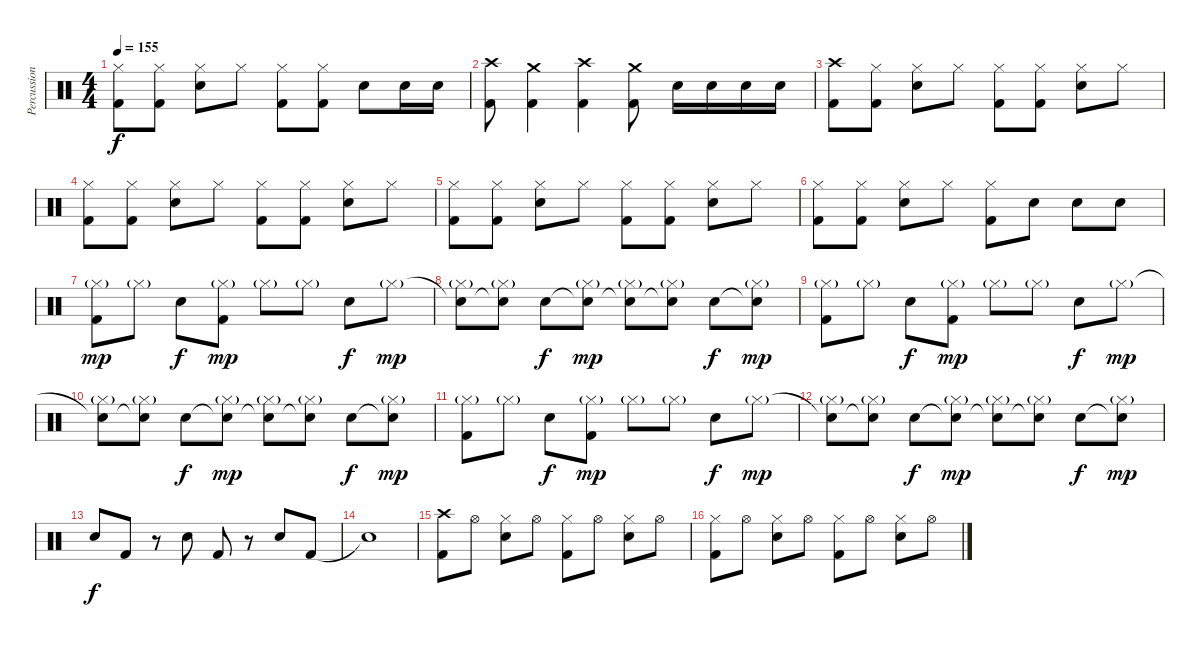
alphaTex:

\track ("Percussion" "Percussion") {instrument percussion}
\staff {score}
\articulation defaults
\ts (4 4)
\tempo 155
\clef neutral
\ks c
("Hi-Hat (closed)" "Kick (hit) 2").8{dy f} ("Hi-Hat (closed)" "Kick (hit) 2").8 ("Hi-Hat (closed)" "Electric Snare (hit)").8 "Hi-Hat (closed)".8 ("Hi-Hat (closed)" "Kick (hit) 2").8 ("Hi-Hat (closed)" "Kick (hit) 2").8 "Electric Snare (hit)".8 "Electric Snare (hit)".16 "Electric Snare (hit)".16 |
("Crash high (hit)" "Kick (hit) 2").8 ("Crash medium (hit)" "Kick (hit) 2").4 ("Crash high (hit)" "Kick (hit) 2").4 ("Crash medium (hit)" "Kick (hit) 2").8 "Electric Snare (hit)".16 "Electric Snare (hit)".16 "Electric Snare (hit)".16 "Electric Snare (hit)".16 |
("Crash high (hit)" "Kick (hit) 2").8 ("Hi-Hat (closed)" "Kick (hit) 2").8 ("Hi-Hat (closed)" "Electric Snare (hit)").8 "Hi-Hat (closed)".8 ("Hi-Hat (closed)" "Kick (hit) 2").8 ("Hi-Hat (closed)" "Kick (hit) 2").8 ("Hi-Hat (closed)" "Electric Snare (hit)").8 "Hi-Hat (closed)".8 |
("Hi-Hat (closed)" "Kick (hit) 2").8 ("Hi-Hat (closed)" "Kick (hit) 2").8 ("Hi-Hat (closed)" "Electric Snare (hit)").8 "Hi-Hat (closed)".8 ("Hi-Hat (closed)" "Kick (hit) 2").8 ("Hi-Hat (closed)" "Kick (hit) 2").8 ("Hi-Hat (closed)" "Electric Snare (hit)").8 "Hi-Hat (closed)".8 |
("Hi-Hat (closed)" "Kick (hit) 2").8 ("Hi-Hat (closed)" "Kick (hit) 2").8 ("Hi-Hat (closed)" "Electric Snare (hit)").8 "Hi-Hat (closed)".8 ("Hi-Hat (closed)" "Kick (hit) 2").8 ("Hi-Hat (closed)" "Kick (hit) 2").8 ("Hi-Hat (closed)" "Electric Snare (hit)").8 "Hi-Hat (closed)".8 |
("Hi-Hat (closed)" "Kick (hit) 2").8 ("Hi-Hat (closed)" "Kick (hit) 2").8 ("Hi-Hat (closed)" "Electric Snare (hit)").8 "Hi-Hat (closed)".8 ("Hi-Hat (closed)" "Kick (hit) 2").8 "Electric Snare (hit)".8 "Electric Snare (hit)".8 "Electric Snare (hit)".8 |
("Kick (hit) 2" "Hi-Hat (closed)"{g}).8{dy mp} "Hi-Hat (closed)"{g}.8 "Electric Snare (hit)".8{dy f} ("Kick (hit) 2" "Hi-Hat (closed)"{g}).8{dy mp} "Hi-Hat (closed)"{g}.8 "Hi-Hat (closed)"{g}.8 "Electric Snare (hit)".8{dy f} "Hi-Hat (closed)"{g}.8{dy mp} |
("Electric Snare (hit)"{t} "Hi-Hat (closed)"{g}).8 ("Electric Snare (hit)"{t} "Hi-Hat (closed)"{g}).8 "Electric Snare (hit)".8{dy f} ("Electric Snare (hit)"{t} "Hi-Hat (closed)"{g}).8{dy mp} ("Electric Snare (hit)"{t} "Hi-Hat (closed)"{g}).8 ("Electric Snare (hit)"{t} "Hi-Hat (closed)"{g}).8 "Electric Snare (hit)".8{dy f} ("Electric Snare (hit)"{t} "Hi-Hat (closed)"{g}).8{dy mp} |
("Kick (hit) 2" "Hi-Hat (closed)"{g}).8 "Hi-Hat (closed)"{g}.8 "Electric Snare (hit)".8{dy f} ("Kick (hit) 2" "Hi-Hat (closed)"{g}).8{dy mp} "Hi-Hat (closed)"{g}.8 "Hi-Hat (closed)"{g}.8 "Electric Snare (hit)".8{dy f} "Hi-Hat (closed)"{g}.8{dy mp} |
("Electric Snare (hit)"{t} "Hi-Hat (closed)"{g}).8 ("Electric Snare (hit)"{t} "Hi-Hat (closed)"{g}).8 "Electric Snare (hit)".8{dy f} ("Electric Snare (hit)"{t} "Hi-Hat (closed)"{g}).8{dy mp} ("Electric Snare (hit)"{t} "Hi-Hat (closed)"{g}).8 ("Electric Snare (hit)"{t} "Hi-Hat (closed)"{g}).8 "Electric Snare (hit)".8{dy f} ("Electric Snare (hit)"{t} "Hi-Hat (closed)"{g}).8{dy mp} |
("Kick (hit) 2" "Hi-Hat (closed)"{g}).8 "Hi-Hat (closed)"{g}.8 "Electric Snare (hit)".8{dy f} ("Kick (hit) 2" "Hi-Hat (closed)"{g}).8{dy mp} "Hi-Hat (closed)"{g}.8 "Hi-Hat (closed)"{g}.8 "Electric Snare (hit)".8{dy f} "Hi-Hat (closed)"{g}.8{dy mp} |
("Electric Snare (hit)"{t} "Hi-Hat (closed)"{g}).8 ("Electric Snare (hit)"{t} "Hi-Hat (closed)"{g}).8 "Electric Snare (hit)".8{dy f} ("Electric Snare (hit)"{t} "Hi-Hat (closed)"{g}).8{dy mp} ("Electric Snare (hit)"{t} "Hi-Hat (closed)"{g}).8 ("Electric Snare (hit)"{t} "Hi-Hat (closed)"{g}).8 "Electric Snare (hit)".8{dy f} ("Electric Snare (hit)"{t} "Hi-Hat (closed)"{g}).8{dy mp} |
"Electric Snare (hit)".8{dy f} "Kick (hit) 2".8 r.8 "Electric Snare (hit)".8 "Kick (hit) 2".8 r.8 "Electric Snare (hit)".8 "Kick (hit) 2".8 |
"Snare (hit)"{t}.1 |
("Crash high (hit)" "Kick (hit) 2").8 "Hi-Hat (open)".8 ("Hi-Hat (closed)" "Electric Snare (hit)").8 "Hi-Hat (open)".8 ("Hi-Hat (closed)" "Kick (hit) 2").8 "Hi-Hat (open)".8 ("Hi-Hat (closed)" "Electric Snare (hit)").8 "Hi-Hat (open)".8 |
("Hi-Hat (closed)" "Kick (hit) 2").8 "Hi-Hat (open)".8 ("Hi-Hat (closed)" "Electric Snare (hit)").8 "Hi-Hat (open)".8 ("Hi-Hat (closed)" "Kick (hit) 2").8 "Hi-Hat (open)".8 ("Hi-Hat (closed)" "Electric Snare (hit)").8 "Hi-Hat (open)".8
